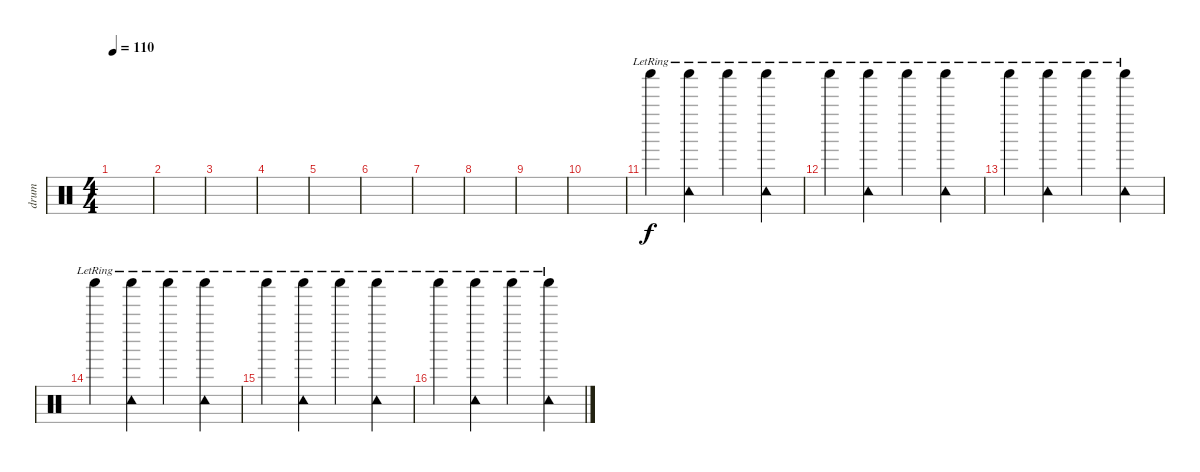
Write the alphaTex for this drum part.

\track ("drum" "drum") {instrument percussion}
\staff {score}
\articulation defaults
\ts (4 4)
\tempo 110
\clef neutral
\ks c
|
|
|
|
|
|
|
|
|
|
"Shaker (hit)"{lr}.4 ("Tambourine (hit)"{lr} "Shaker (hit)"{lr}).4 "Shaker (hit)"{lr}.4 ("Tambourine (hit)"{lr} "Shaker (hit)"{lr}).4 |
"Shaker (hit)"{lr}.4 ("Tambourine (hit)"{lr} "Shaker (hit)"{lr}).4 "Shaker (hit)"{lr}.4 ("Tambourine (hit)"{lr} "Shaker (hit)"{lr}).4 |
"Shaker (hit)"{lr}.4 ("Tambourine (hit)"{lr} "Shaker (hit)"{lr}).4 "Shaker (hit)"{lr}.4 ("Tambourine (hit)"{lr} "Shaker (hit)"{lr}).4 |
"Shaker (hit)"{lr}.4 ("Tambourine (hit)"{lr} "Shaker (hit)"{lr}).4 "Shaker (hit)"{lr}.4 ("Tambourine (hit)"{lr} "Shaker (hit)"{lr}).4 |
"Shaker (hit)"{lr}.4 ("Tambourine (hit)"{lr} "Shaker (hit)"{lr}).4 "Shaker (hit)"{lr}.4 ("Tambourine (hit)"{lr} "Shaker (hit)"{lr}).4 |
"Shaker (hit)"{lr}.4 ("Tambourine (hit)"{lr} "Shaker (hit)"{lr}).4 "Shaker (hit)"{lr}.4 ("Tambourine (hit)"{lr} "Shaker (hit)"{lr}).4
